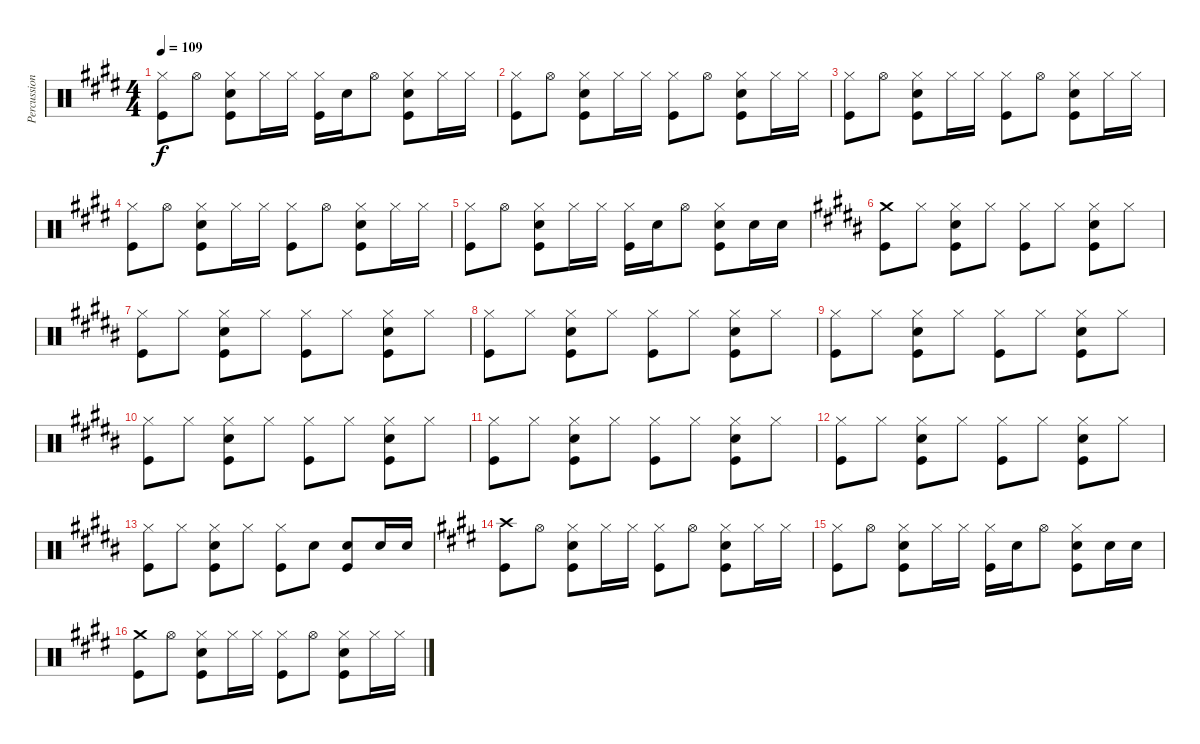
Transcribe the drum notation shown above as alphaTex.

\track ("Percussion" "Percussion") {instrument percussion}
\staff {score}
\articulation defaults
\ts (4 4)
\tempo 109
\clef neutral
\ks e
("Hi-Hat (closed)" "Kick (hit)").8{dy f} "Hi-Hat (open)".8 ("Hi-Hat (closed)" "Snare (hit) 2" "Kick (hit)").8 "Hi-Hat (closed)".16 "Hi-Hat (closed)".16 ("Hi-Hat (closed)" "Kick (hit)").16 "Snare (hit) 2".16 "Hi-Hat (open)".8 ("Hi-Hat (closed)" "Snare (hit) 2" "Kick (hit)").8 "Hi-Hat (closed)".16 "Hi-Hat (closed)".16 |
("Hi-Hat (closed)" "Kick (hit)").8 "Hi-Hat (open)".8 ("Hi-Hat (closed)" "Snare (hit) 2" "Kick (hit)").8 "Hi-Hat (closed)".16 "Hi-Hat (closed)".16 ("Hi-Hat (closed)" "Kick (hit)").8 "Hi-Hat (open)".8 ("Hi-Hat (closed)" "Snare (hit) 2" "Kick (hit)").8 "Hi-Hat (closed)".16 "Hi-Hat (closed)".16 |
("Hi-Hat (closed)" "Kick (hit)").8 "Hi-Hat (open)".8 ("Hi-Hat (closed)" "Snare (hit) 2" "Kick (hit)").8 "Hi-Hat (closed)".16 "Hi-Hat (closed)".16 ("Hi-Hat (closed)" "Kick (hit)").8 "Hi-Hat (open)".8 ("Hi-Hat (closed)" "Snare (hit) 2" "Kick (hit)").8 "Hi-Hat (closed)".16 "Hi-Hat (closed)".16 |
("Hi-Hat (closed)" "Kick (hit)").8 "Hi-Hat (open)".8 ("Hi-Hat (closed)" "Snare (hit) 2" "Kick (hit)").8 "Hi-Hat (closed)".16 "Hi-Hat (closed)".16 ("Hi-Hat (closed)" "Kick (hit)").8 "Hi-Hat (open)".8 ("Hi-Hat (closed)" "Snare (hit) 2" "Kick (hit)").8 "Hi-Hat (closed)".16 "Hi-Hat (closed)".16 |
("Hi-Hat (closed)" "Kick (hit)").8 "Hi-Hat (open)".8 ("Hi-Hat (closed)" "Snare (hit) 2" "Kick (hit)").8 "Hi-Hat (closed)".16 "Hi-Hat (closed)".16 ("Hi-Hat (closed)" "Kick (hit)").16 "Snare (hit) 2".16 "Hi-Hat (open)".8 ("Hi-Hat (closed)" "Snare (hit) 2" "Kick (hit)").8 "Snare (hit) 2".16 "Snare (hit) 2".16 |
\ks b
("Crash medium (hit)" "Kick (hit)").8 "Hi-Hat (closed)".8 ("Hi-Hat (closed)" "Snare (hit) 2" "Kick (hit)").8 "Hi-Hat (closed)".8 ("Hi-Hat (closed)" "Kick (hit)").8 "Hi-Hat (closed)".8 ("Hi-Hat (closed)" "Snare (hit) 2" "Kick (hit)").8 "Hi-Hat (closed)".8 |
("Hi-Hat (closed)" "Kick (hit)").8 "Hi-Hat (closed)".8 ("Hi-Hat (closed)" "Snare (hit) 2" "Kick (hit)").8 "Hi-Hat (closed)".8 ("Hi-Hat (closed)" "Kick (hit)").8 "Hi-Hat (closed)".8 ("Hi-Hat (closed)" "Snare (hit) 2" "Kick (hit)").8 "Hi-Hat (closed)".8 |
("Hi-Hat (closed)" "Kick (hit)").8 "Hi-Hat (closed)".8 ("Hi-Hat (closed)" "Snare (hit) 2" "Kick (hit)").8 "Hi-Hat (closed)".8 ("Hi-Hat (closed)" "Kick (hit)").8 "Hi-Hat (closed)".8 ("Hi-Hat (closed)" "Snare (hit) 2" "Kick (hit)").8 "Hi-Hat (closed)".8 |
("Hi-Hat (closed)" "Kick (hit)").8 "Hi-Hat (closed)".8 ("Hi-Hat (closed)" "Snare (hit) 2" "Kick (hit)").8 "Hi-Hat (closed)".8 ("Hi-Hat (closed)" "Kick (hit)").8 "Hi-Hat (closed)".8 ("Hi-Hat (closed)" "Snare (hit) 2" "Kick (hit)").8 "Hi-Hat (closed)".8 |
("Hi-Hat (closed)" "Kick (hit)").8 "Hi-Hat (closed)".8 ("Hi-Hat (closed)" "Snare (hit) 2" "Kick (hit)").8 "Hi-Hat (closed)".8 ("Hi-Hat (closed)" "Kick (hit)").8 "Hi-Hat (closed)".8 ("Hi-Hat (closed)" "Snare (hit) 2" "Kick (hit)").8 "Hi-Hat (closed)".8 |
("Hi-Hat (closed)" "Kick (hit)").8 "Hi-Hat (closed)".8 ("Hi-Hat (closed)" "Snare (hit) 2" "Kick (hit)").8 "Hi-Hat (closed)".8 ("Hi-Hat (closed)" "Kick (hit)").8 "Hi-Hat (closed)".8 ("Hi-Hat (closed)" "Snare (hit) 2" "Kick (hit)").8 "Hi-Hat (closed)".8 |
("Hi-Hat (closed)" "Kick (hit)").8 "Hi-Hat (closed)".8 ("Hi-Hat (closed)" "Snare (hit) 2" "Kick (hit)").8 "Hi-Hat (closed)".8 ("Hi-Hat (closed)" "Kick (hit)").8 "Hi-Hat (closed)".8 ("Hi-Hat (closed)" "Snare (hit) 2" "Kick (hit)").8 "Hi-Hat (closed)".8 |
("Hi-Hat (closed)" "Kick (hit)").8 "Hi-Hat (closed)".8 ("Hi-Hat (closed)" "Snare (hit) 2" "Kick (hit)").8 "Hi-Hat (closed)".8 ("Hi-Hat (closed)" "Kick (hit)").8 "Snare (hit) 2".8 ("Snare (hit) 2" "Kick (hit)").8 "Snare (hit) 2".16 "Snare (hit) 2".16 |
\ks e
("Crash high (hit)" "Kick (hit)").8 "Hi-Hat (open)".8 ("Hi-Hat (closed)" "Snare (hit) 2" "Kick (hit)").8 "Hi-Hat (closed)".16 "Hi-Hat (closed)".16 ("Hi-Hat (closed)" "Kick (hit)").8 "Hi-Hat (open)".8 ("Hi-Hat (closed)" "Snare (hit) 2" "Kick (hit)").8 "Hi-Hat (closed)".16 "Hi-Hat (closed)".16 |
("Hi-Hat (closed)" "Kick (hit)").8 "Hi-Hat (open)".8 ("Hi-Hat (closed)" "Snare (hit) 2" "Kick (hit)").8 "Hi-Hat (closed)".16 "Hi-Hat (closed)".16 ("Hi-Hat (closed)" "Kick (hit)").16 "Snare (hit) 2".16 "Hi-Hat (open)".8 ("Hi-Hat (closed)" "Snare (hit) 2" "Kick (hit)").8 "Snare (hit) 2".16 "Snare (hit) 2".16 |
("Crash medium (hit)" "Kick (hit)").8 "Hi-Hat (open)".8 ("Hi-Hat (closed)" "Snare (hit) 2" "Kick (hit)").8 "Hi-Hat (closed)".16 "Hi-Hat (closed)".16 ("Hi-Hat (closed)" "Kick (hit)").8 "Hi-Hat (open)".8 ("Hi-Hat (closed)" "Snare (hit) 2" "Kick (hit)").8 "Hi-Hat (closed)".16 "Hi-Hat (closed)".16
